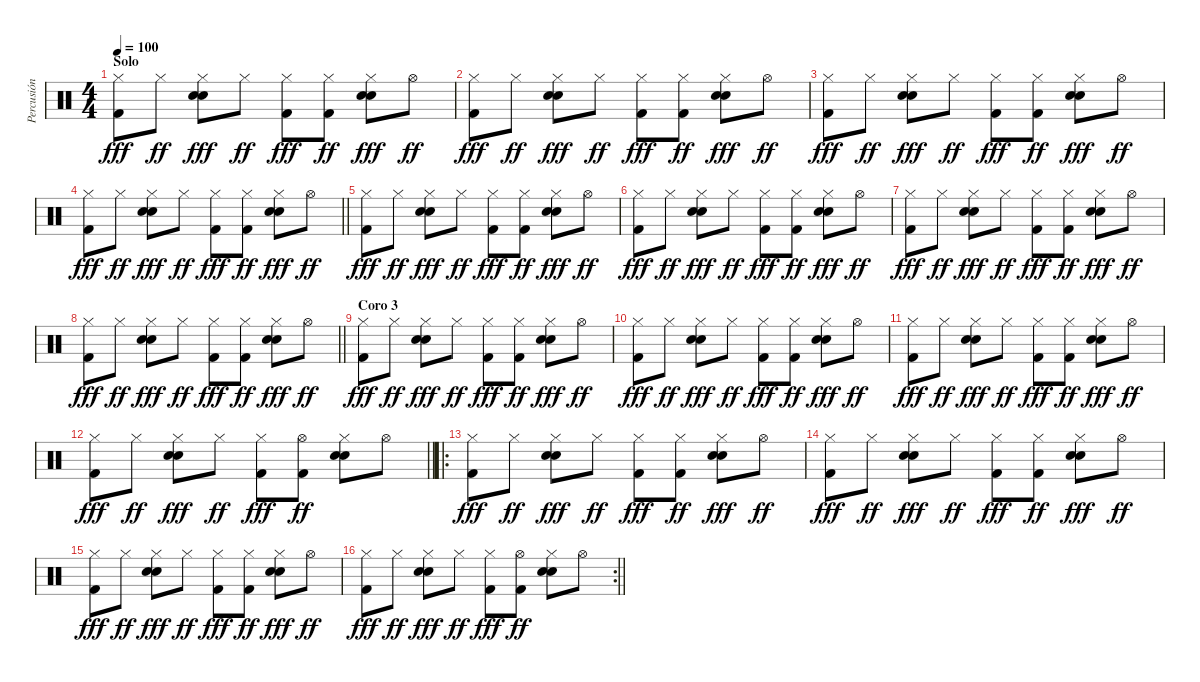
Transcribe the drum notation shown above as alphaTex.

\track ("Percusión" "Percusión") {instrument percussion}
\staff {score}
\articulation defaults
\ts (4 4)
\section ("" "Solo")
\tempo 100
\clef neutral
\ks c
("Hi-Hat (closed)" "Kick (hit) 2").8{dy fff} "Hi-Hat (closed)".8{dy ff} ("Hi-Hat (closed)" "Electric Snare (hit)" "Electric Snare (hit)").8{dy fff} "Hi-Hat (closed)".8{dy ff} ("Hi-Hat (closed)" "Kick (hit) 2").8{dy fff} ("Hi-Hat (closed)" "Kick (hit) 2").8{dy ff} ("Hi-Hat (closed)" "Electric Snare (hit)" "Electric Snare (hit)").8{dy fff} "Hi-Hat (open)".8{dy ff} |
("Hi-Hat (closed)" "Kick (hit) 2").8{dy fff} "Hi-Hat (closed)".8{dy ff} ("Hi-Hat (closed)" "Electric Snare (hit)" "Electric Snare (hit)").8{dy fff} "Hi-Hat (closed)".8{dy ff} ("Hi-Hat (closed)" "Kick (hit) 2").8{dy fff} ("Hi-Hat (closed)" "Kick (hit) 2").8{dy ff} ("Hi-Hat (closed)" "Electric Snare (hit)" "Electric Snare (hit)").8{dy fff} "Hi-Hat (open)".8{dy ff} |
("Hi-Hat (closed)" "Kick (hit) 2").8{dy fff} "Hi-Hat (closed)".8{dy ff} ("Hi-Hat (closed)" "Electric Snare (hit)" "Electric Snare (hit)").8{dy fff} "Hi-Hat (closed)".8{dy ff} ("Hi-Hat (closed)" "Kick (hit) 2").8{dy fff} ("Hi-Hat (closed)" "Kick (hit) 2").8{dy ff} ("Hi-Hat (closed)" "Electric Snare (hit)" "Electric Snare (hit)").8{dy fff} "Hi-Hat (open)".8{dy ff} |
\barLineRight lightlight
("Hi-Hat (closed)" "Kick (hit) 2").8{dy fff} "Hi-Hat (closed)".8{dy ff} ("Hi-Hat (closed)" "Electric Snare (hit)" "Electric Snare (hit)").8{dy fff} "Hi-Hat (closed)".8{dy ff} ("Hi-Hat (closed)" "Kick (hit) 2").8{dy fff} ("Hi-Hat (closed)" "Kick (hit) 2").8{dy ff} ("Hi-Hat (closed)" "Electric Snare (hit)" "Electric Snare (hit)").8{dy fff} "Hi-Hat (open)".8{dy ff} |
("Hi-Hat (closed)" "Kick (hit) 2").8{dy fff} "Hi-Hat (closed)".8{dy ff} ("Hi-Hat (closed)" "Electric Snare (hit)" "Electric Snare (hit)").8{dy fff} "Hi-Hat (closed)".8{dy ff} ("Hi-Hat (closed)" "Kick (hit) 2").8{dy fff} ("Hi-Hat (closed)" "Kick (hit) 2").8{dy ff} ("Hi-Hat (closed)" "Electric Snare (hit)" "Electric Snare (hit)").8{dy fff} "Hi-Hat (open)".8{dy ff} |
("Hi-Hat (closed)" "Kick (hit) 2").8{dy fff} "Hi-Hat (closed)".8{dy ff} ("Hi-Hat (closed)" "Electric Snare (hit)" "Electric Snare (hit)").8{dy fff} "Hi-Hat (closed)".8{dy ff} ("Hi-Hat (closed)" "Kick (hit) 2").8{dy fff} ("Hi-Hat (closed)" "Kick (hit) 2").8{dy ff} ("Hi-Hat (closed)" "Electric Snare (hit)" "Electric Snare (hit)").8{dy fff} "Hi-Hat (open)".8{dy ff} |
("Hi-Hat (closed)" "Kick (hit) 2").8{dy fff} "Hi-Hat (closed)".8{dy ff} ("Hi-Hat (closed)" "Electric Snare (hit)" "Electric Snare (hit)").8{dy fff} "Hi-Hat (closed)".8{dy ff} ("Hi-Hat (closed)" "Kick (hit) 2").8{dy fff} ("Hi-Hat (closed)" "Kick (hit) 2").8{dy ff} ("Hi-Hat (closed)" "Electric Snare (hit)" "Electric Snare (hit)").8{dy fff} "Hi-Hat (open)".8{dy ff} |
\barLineRight lightlight
("Hi-Hat (closed)" "Kick (hit) 2").8{dy fff} "Hi-Hat (closed)".8{dy ff} ("Hi-Hat (closed)" "Electric Snare (hit)" "Electric Snare (hit)").8{dy fff} "Hi-Hat (closed)".8{dy ff} ("Hi-Hat (closed)" "Kick (hit) 2").8{dy fff} ("Hi-Hat (closed)" "Kick (hit) 2").8{dy ff} ("Hi-Hat (closed)" "Electric Snare (hit)" "Electric Snare (hit)").8{dy fff} "Hi-Hat (open)".8{dy ff} |
\section ("" "Coro 3")
("Hi-Hat (closed)" "Kick (hit) 2").8{dy fff} "Hi-Hat (closed)".8{dy ff} ("Hi-Hat (closed)" "Electric Snare (hit)" "Electric Snare (hit)").8{dy fff} "Hi-Hat (closed)".8{dy ff} ("Hi-Hat (closed)" "Kick (hit) 2").8{dy fff} ("Hi-Hat (closed)" "Kick (hit) 2").8{dy ff} ("Hi-Hat (closed)" "Electric Snare (hit)" "Electric Snare (hit)").8{dy fff} "Hi-Hat (open)".8{dy ff} |
("Hi-Hat (closed)" "Kick (hit) 2").8{dy fff} "Hi-Hat (closed)".8{dy ff} ("Hi-Hat (closed)" "Electric Snare (hit)" "Electric Snare (hit)").8{dy fff} "Hi-Hat (closed)".8{dy ff} ("Hi-Hat (closed)" "Kick (hit) 2").8{dy fff} ("Hi-Hat (closed)" "Kick (hit) 2").8{dy ff} ("Hi-Hat (closed)" "Electric Snare (hit)" "Electric Snare (hit)").8{dy fff} "Hi-Hat (open)".8{dy ff} |
("Hi-Hat (closed)" "Kick (hit) 2").8{dy fff} "Hi-Hat (closed)".8{dy ff} ("Hi-Hat (closed)" "Electric Snare (hit)" "Electric Snare (hit)").8{dy fff} "Hi-Hat (closed)".8{dy ff} ("Hi-Hat (closed)" "Kick (hit) 2").8{dy fff} ("Hi-Hat (closed)" "Kick (hit) 2").8{dy ff} ("Hi-Hat (closed)" "Electric Snare (hit)" "Electric Snare (hit)").8{dy fff} "Hi-Hat (open)".8{dy ff} |
\barLineRight lightlight
("Hi-Hat (closed)" "Kick (hit) 2").8{dy fff} "Hi-Hat (closed)".8{dy ff} ("Hi-Hat (closed)" "Electric Snare (hit)" "Electric Snare (hit)").8{dy fff} "Hi-Hat (closed)".8{dy ff} ("Hi-Hat (closed)" "Kick (hit) 2").8{dy fff} ("Hi-Hat (open)" "Kick (hit) 2").8{dy ff} ("Hi-Hat (closed)" "Electric Snare (hit)" "Electric Snare (hit)").8 "Hi-Hat (open)".8 |
\ro
("Hi-Hat (closed)" "Kick (hit) 2").8{dy fff} "Hi-Hat (closed)".8{dy ff} ("Hi-Hat (closed)" "Electric Snare (hit)" "Electric Snare (hit)").8{dy fff} "Hi-Hat (closed)".8{dy ff} ("Hi-Hat (closed)" "Kick (hit) 2").8{dy fff} ("Hi-Hat (closed)" "Kick (hit) 2").8{dy ff} ("Hi-Hat (closed)" "Electric Snare (hit)" "Electric Snare (hit)").8{dy fff} "Hi-Hat (open)".8{dy ff} |
("Hi-Hat (closed)" "Kick (hit) 2").8{dy fff} "Hi-Hat (closed)".8{dy ff} ("Hi-Hat (closed)" "Electric Snare (hit)" "Electric Snare (hit)").8{dy fff} "Hi-Hat (closed)".8{dy ff} ("Hi-Hat (closed)" "Kick (hit) 2").8{dy fff} ("Hi-Hat (closed)" "Kick (hit) 2").8{dy ff} ("Hi-Hat (closed)" "Electric Snare (hit)" "Electric Snare (hit)").8{dy fff} "Hi-Hat (open)".8{dy ff} |
("Hi-Hat (closed)" "Kick (hit) 2").8{dy fff} "Hi-Hat (closed)".8{dy ff} ("Hi-Hat (closed)" "Electric Snare (hit)" "Electric Snare (hit)").8{dy fff} "Hi-Hat (closed)".8{dy ff} ("Hi-Hat (closed)" "Kick (hit) 2").8{dy fff} ("Hi-Hat (closed)" "Kick (hit) 2").8{dy ff} ("Hi-Hat (closed)" "Electric Snare (hit)" "Electric Snare (hit)").8{dy fff} "Hi-Hat (open)".8{dy ff} |
\rc 2
\barLineRight lightlight
("Hi-Hat (closed)" "Kick (hit) 2").8{dy fff} "Hi-Hat (closed)".8{dy ff} ("Hi-Hat (closed)" "Electric Snare (hit)" "Electric Snare (hit)").8{dy fff} "Hi-Hat (closed)".8{dy ff} ("Hi-Hat (closed)" "Kick (hit) 2").8{dy fff} ("Hi-Hat (open)" "Kick (hit) 2").8{dy ff} ("Hi-Hat (closed)" "Electric Snare (hit)" "Electric Snare (hit)").8 "Hi-Hat (open)".8
